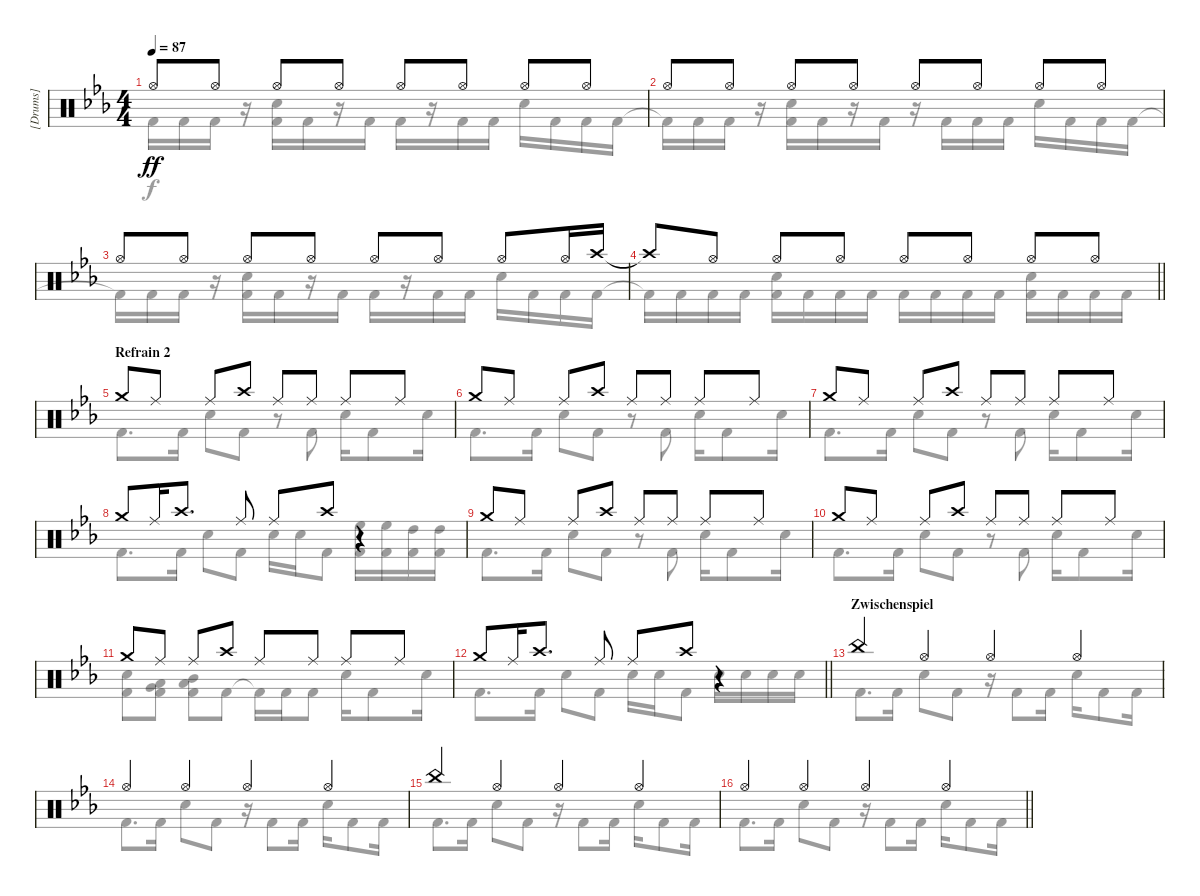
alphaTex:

\track ("[Drums]" "[Drums]") {instrument percussion}
\staff {score}
\articulation defaults
\voice
\ts (4 4)
\tempo 87
\clef neutral
\ks cminor "Hi-Hat (open)".8{dy ff} "Hi-Hat (open)".8 "Hi-Hat (open)".8 "Hi-Hat (open)".8 "Hi-Hat (open)".8 "Hi-Hat (open)".8 "Hi-Hat (open)".8 "Hi-Hat (open)".8
|
"Hi-Hat (open)".8 "Hi-Hat (open)".8 "Hi-Hat (open)".8 "Hi-Hat (open)".8 "Hi-Hat (open)".8 "Hi-Hat (open)".8 "Hi-Hat (open)".8 "Hi-Hat (open)".8 |
"Hi-Hat (open)".8 "Hi-Hat (open)".8 "Hi-Hat (open)".8 "Hi-Hat (open)".8 "Hi-Hat (open)".8 "Hi-Hat (open)".8 "Hi-Hat (open)".8 "Hi-Hat (open)".16 "Crash high (hit)".16 |
\barLineRight lightlight "Crash high (hit)"{t}.8 "Hi-Hat (open)".8 "Hi-Hat (open)".8 "Hi-Hat (open)".8 "Hi-Hat (open)".8 "Hi-Hat (open)".8 "Hi-Hat (open)".8 "Hi-Hat (open)".8
|
\section ("" "Refrain 2")
"Crash medium (hit)".8 "Ride (middle)".8 "Ride (middle)".8 "Crash high (hit)".8 "Ride (middle)".8 "Ride (middle)".8 "Ride (middle)".8 "Ride (middle)".8 |
"Crash medium (hit)".8 "Ride (middle)".8 "Ride (middle)".8 "Crash high (hit)".8 "Ride (middle)".8 "Ride (middle)".8 "Ride (middle)".8 "Ride (middle)".8 |
"Crash medium (hit)".8 "Ride (middle)".8 "Ride (middle)".8 "Crash high (hit)".8 "Ride (middle)".8 "Ride (middle)".8 "Ride (middle)".8 "Ride (middle)".8 |
"Crash medium (hit)".8 "Ride (middle)".16 "Crash high (hit)".8{d} "Ride (middle)".8 "Ride (middle)".8 "Crash high (hit)".8 r.4 |
"Crash medium (hit)".8 "Ride (middle)".8 "Ride (middle)".8 "Crash high (hit)".8 "Ride (middle)".8 "Ride (middle)".8 "Ride (middle)".8 "Ride (middle)".8 |
"Crash medium (hit)".8 "Ride (middle)".8 "Ride (middle)".8 "Crash high (hit)".8 "Ride (middle)".8 "Ride (middle)".8 "Ride (middle)".8 "Ride (middle)".8 |
"Crash medium (hit)".8 "Ride (middle)".8 "Ride (middle)".8 "Crash high (hit)".8 "Ride (middle)".8 "Ride (middle)".8 "Ride (middle)".8 "Ride (middle)".8 |
\barLineRight lightlight "Crash medium (hit)".8 "Ride (middle)".16 "Crash high (hit)".8{d} "Ride (middle)".8 "Ride (middle)".8 "Crash high (hit)".8
r.4 |
\section ("" "Zwischenspiel")
"China (hit)".4 "Hi-Hat (open)".4 "Hi-Hat (open)".4 "Hi-Hat (open)".4 |
"Hi-Hat (open)".4 "Hi-Hat (open)".4 "Hi-Hat (open)".4 "Hi-Hat (open)".4 |
"China (hit)".4 "Hi-Hat (open)".4 "Hi-Hat (open)".4 "Hi-Hat (open)".4 |
\barLineRight lightlight "Hi-Hat (open)".4 "Hi-Hat (open)".4 "Hi-Hat (open)".4 "Hi-Hat (open)".4
\voice
\clef neutral
\ottava regular
\simile none
\ks cminor "Kick (hit) 2".16{dy f} "Kick (hit) 2".16 "Kick (hit) 2".16
r.16 ("Kick (hit) 2" "Snare (hit) 2").16 "Kick (hit) 2".16 r.16 "Kick (hit) 2".16 "Kick (hit) 2".16 r.16 "Kick (hit) 2".16 "Kick (hit) 2".16 "Snare (hit) 2".16 "Kick (hit) 2".16 "Kick (hit) 2".16 "Kick (hit) 2".16 |
"Kick (hit) 2"{t}.16 "Kick (hit) 2".16 "Kick (hit) 2".16 r.16 ("Kick (hit) 2" "Snare (hit) 2").16 "Kick (hit) 2".16 r.16 "Kick (hit) 2".16 r.16 "Kick (hit) 2".16 "Kick (hit) 2".16 "Kick (hit) 2".16 "Snare (hit) 2".16 "Kick (hit) 2".16 "Kick (hit) 2".16 "Kick (hit) 2".16 |
"Kick (hit) 2"{t}.16 "Kick (hit) 2".16 "Kick (hit) 2".16 r.16 ("Kick (hit) 2" "Snare (hit) 2").16 "Kick (hit) 2".16 r.16 "Kick (hit) 2".16 "Kick (hit) 2".16 r.16 "Kick (hit) 2".16 "Kick (hit) 2".16 "Snare (hit) 2".16 "Kick (hit) 2".16 "Kick (hit) 2".16 "Kick (hit) 2".16 |
\barLineRight lightlight "Kick (hit) 2"{t}.16 "Kick (hit) 2".16 "Kick (hit) 2".16 "Kick (hit) 2".16
("Kick (hit) 2" "Snare (hit) 2").16 "Kick (hit) 2".16 "Kick (hit) 2".16 "Kick (hit) 2".16 "Kick (hit) 2".16 "Kick (hit) 2".16 "Kick (hit) 2".16 "Kick (hit) 2".16 ("Kick (hit) 2" "Snare (hit) 2").16 "Kick (hit) 2".16 "Kick (hit) 2".16 "Kick (hit) 2".16 |
"Kick (hit) 2".8{d} "Kick (hit) 2".16 "Snare (hit) 2".8 "Kick (hit) 2".8 r.8 "Kick (hit) 2".8 "Snare (hit) 2".16 "Kick (hit) 2".8 "Snare (hit) 2".16 |
"Kick (hit) 2".8{d} "Kick (hit) 2".16 "Snare (hit) 2".8 "Kick (hit) 2".8 r.8 "Kick (hit) 2".8 "Snare (hit) 2".16 "Kick (hit) 2".8 "Snare (hit) 2".16 |
"Kick (hit) 2".8{d} "Kick (hit) 2".16 "Snare (hit) 2".8 "Kick (hit) 2".8 r.8 "Kick (hit) 2".8 "Snare (hit) 2".16 "Kick (hit) 2".8 "Snare (hit) 2".16 |
"Kick (hit) 2".8{d} "Kick (hit) 2".16 "Snare (hit) 2".8 "Kick (hit) 2".8 "Snare (hit) 2".16 "Snare (hit) 2".16 "Kick (hit) 2".8 ("High Floor Tom (hit)" "Kick (hit) 2").16 ("High Floor Tom (hit)" "Kick (hit) 2").16 ("High Tom (hit)" "Kick (hit) 2").16 ("High Tom (hit)" "Kick (hit) 2").16 |
"Kick (hit) 2".8{d} "Kick (hit) 2".16 "Snare (hit) 2".8 "Kick (hit) 2".8 r.8 "Kick (hit) 2".8 "Snare (hit) 2".16 "Kick (hit) 2".8 "Snare (hit) 2".16 |
"Kick (hit) 2".8{d} "Kick (hit) 2".16 "Snare (hit) 2".8 "Kick (hit) 2".8 r.8 "Kick (hit) 2".8 "Snare (hit) 2".16 "Kick (hit) 2".8 "Snare (hit) 2".16 |
("Kick (hit) 2" "Snare (hit) 2").8 ("Kick (hit) 2" "Very Low Tom (hit)" "Low Tom (hit)").8 ("Kick (hit) 2" "Low Tom (hit)" "Mid Tom (hit)").8 "Kick (hit) 2".8 "Kick (hit) 2"{t}.16 "Kick (hit) 2".16 "Kick (hit) 2".8 "Snare (hit) 2".16 "Kick (hit) 2".8 "Snare (hit) 2".16 |
\barLineRight lightlight "Kick (hit) 2".8{d} "Kick (hit) 2".16 "Snare (hit) 2".8 "Kick (hit) 2".8 "Snare (hit) 2".16 "Snare (hit) 2".16 "Kick (hit) 2".8 "Snare (hit) 2".16 "Snare (hit) 2".16 "Snare (hit) 2".16 "Snare (hit) 2".16
|
"Kick (hit) 2".8{d} "Kick (hit) 2".16 "Snare (hit) 2".8 "Kick (hit) 2".8 r.16 "Kick (hit) 2".8 "Kick (hit) 2".16 "Snare (hit) 2".16 "Kick (hit) 2".8 "Kick (hit) 2".16 |
"Kick (hit) 2".8{d} "Kick (hit) 2".16 "Snare (hit) 2".8 "Kick (hit) 2".8 r.16 "Kick (hit) 2".8 "Kick (hit) 2".16 "Snare (hit) 2".16 "Kick (hit) 2".8 "Kick (hit) 2".16 |
"Kick (hit) 2".8{d} "Kick (hit) 2".16 "Snare (hit) 2".8 "Kick (hit) 2".8 r.16 "Kick (hit) 2".8 "Kick (hit) 2".16 "Snare (hit) 2".16 "Kick (hit) 2".8 "Kick (hit) 2".16 |
\barLineRight lightlight "Kick (hit) 2".8{d} "Kick (hit) 2".16 "Snare (hit) 2".8 "Kick (hit) 2".8
r.16 "Kick (hit) 2".8 "Kick (hit) 2".16 "Snare (hit) 2".16 "Kick (hit) 2".8 "Kick (hit) 2".16
